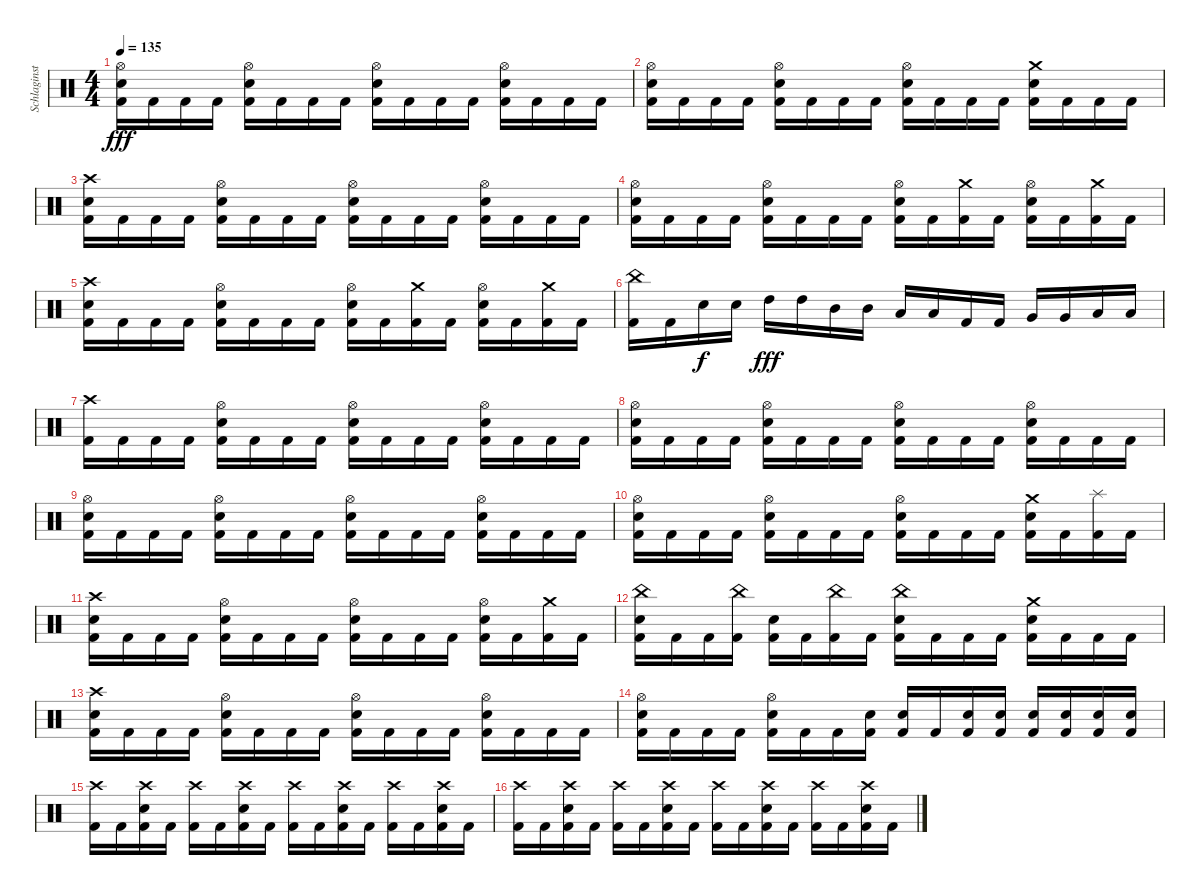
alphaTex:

\track ("Schlaginstrumente - Auswahl" "Schlaginst") {instrument percussion}
\staff {score}
\articulation defaults
\ts (4 4)
\tempo 135
\clef neutral
\ks c
("Hi-Hat (open)" "Snare (hit) 2" "Kick (hit) 2").16{dy fff} "Kick (hit) 2".16 "Kick (hit) 2".16 "Kick (hit) 2".16 ("Hi-Hat (open)" "Snare (hit) 2" "Kick (hit) 2").16 "Kick (hit) 2".16 "Kick (hit) 2".16 "Kick (hit) 2".16 ("Hi-Hat (open)" "Snare (hit) 2" "Kick (hit) 2").16 "Kick (hit) 2".16 "Kick (hit) 2".16 "Kick (hit) 2".16 ("Hi-Hat (open)" "Snare (hit) 2" "Kick (hit) 2").16 "Kick (hit) 2".16 "Kick (hit) 2".16 "Kick (hit) 2".16 |
("Hi-Hat (open)" "Snare (hit) 2" "Kick (hit) 2").16 "Kick (hit) 2".16 "Kick (hit) 2".16 "Kick (hit) 2".16 ("Hi-Hat (open)" "Snare (hit) 2" "Kick (hit) 2").16 "Kick (hit) 2".16 "Kick (hit) 2".16 "Kick (hit) 2".16 ("Hi-Hat (open)" "Snare (hit) 2" "Kick (hit) 2").16 "Kick (hit) 2".16 "Kick (hit) 2".16 "Kick (hit) 2".16 ("Crash medium (hit)" "Snare (hit) 2" "Kick (hit) 2").16 "Kick (hit) 2".16 "Kick (hit) 2".16 "Kick (hit) 2".16 |
("Crash high (hit)" "Snare (hit) 2" "Kick (hit) 2").16 "Kick (hit) 2".16 "Kick (hit) 2".16 "Kick (hit) 2".16 ("Hi-Hat (open)" "Snare (hit) 2" "Kick (hit) 2").16 "Kick (hit) 2".16 "Kick (hit) 2".16 "Kick (hit) 2".16 ("Hi-Hat (open)" "Snare (hit) 2" "Kick (hit) 2").16 "Kick (hit) 2".16 "Kick (hit) 2".16 "Kick (hit) 2".16 ("Hi-Hat (open)" "Snare (hit) 2" "Kick (hit) 2").16 "Kick (hit) 2".16 "Kick (hit) 2".16 "Kick (hit) 2".16 |
("Hi-Hat (open)" "Snare (hit) 2" "Kick (hit) 2").16 "Kick (hit) 2".16 "Kick (hit) 2".16 "Kick (hit) 2".16 ("Hi-Hat (open)" "Snare (hit) 2" "Kick (hit) 2").16 "Kick (hit) 2".16 "Kick (hit) 2".16 "Kick (hit) 2".16 ("Hi-Hat (open)" "Snare (hit) 2" "Kick (hit) 2").16 "Kick (hit) 2".16 ("Crash medium (hit)" "Kick (hit) 2").16 "Kick (hit) 2".16 ("Hi-Hat (open)" "Snare (hit) 2" "Kick (hit) 2").16 "Kick (hit) 2".16 ("Crash medium (hit)" "Kick (hit) 2").16 "Kick (hit) 2".16 |
("Crash high (hit)" "Snare (hit) 2" "Kick (hit) 2").16 "Kick (hit) 2".16 "Kick (hit) 2".16 "Kick (hit) 2".16 ("Hi-Hat (open)" "Snare (hit) 2" "Kick (hit) 2").16 "Kick (hit) 2".16 "Kick (hit) 2".16 "Kick (hit) 2".16 ("Hi-Hat (open)" "Snare (hit) 2" "Kick (hit) 2").16 "Kick (hit) 2".16 ("Crash medium (hit)" "Kick (hit) 2").16 "Kick (hit) 2".16 ("Hi-Hat (open)" "Snare (hit) 2" "Kick (hit) 2").16 "Kick (hit) 2".16 ("Crash medium (hit)" "Kick (hit) 2").16 "Kick (hit) 2".16 |
("China (hit)" "Kick (hit) 2").16 "Kick (hit) 2".16 "Snare (hit) 2".16{dy f} "Snare (hit) 2".16 "High Tom (hit)".16{dy fff} "High Tom (hit)".16 "Mid Tom (hit)".16 "Mid Tom (hit)".16 "Low Tom (hit)".16 "Low Tom (hit)".16 "Kick (hit) 2".16 "Kick (hit) 2".16 "Very Low Tom (hit)".16 "Very Low Tom (hit)".16 "Low Floor Tom (hit)".16 "Low Floor Tom (hit)".16 |
("Crash high (hit)" "Kick (hit) 2").16 "Kick (hit) 2".16 "Kick (hit) 2".16 "Kick (hit) 2".16 ("Hi-Hat (open)" "Snare (hit) 2" "Kick (hit) 2").16 "Kick (hit) 2".16 "Kick (hit) 2".16 "Kick (hit) 2".16 ("Hi-Hat (open)" "Snare (hit) 2" "Kick (hit) 2").16 "Kick (hit) 2".16 "Kick (hit) 2".16 "Kick (hit) 2".16 ("Hi-Hat (open)" "Snare (hit) 2" "Kick (hit) 2").16 "Kick (hit) 2".16 "Kick (hit) 2".16 "Kick (hit) 2".16 |
("Hi-Hat (open)" "Snare (hit) 2" "Kick (hit) 2").16 "Kick (hit) 2".16 "Kick (hit) 2".16 "Kick (hit) 2".16 ("Hi-Hat (open)" "Snare (hit) 2" "Kick (hit) 2").16 "Kick (hit) 2".16 "Kick (hit) 2".16 "Kick (hit) 2".16 ("Hi-Hat (open)" "Snare (hit) 2" "Kick (hit) 2").16 "Kick (hit) 2".16 "Kick (hit) 2".16 "Kick (hit) 2".16 ("Hi-Hat (open)" "Snare (hit) 2" "Kick (hit) 2").16 "Kick (hit) 2".16 "Kick (hit) 2".16 "Kick (hit) 2".16 |
("Hi-Hat (open)" "Snare (hit) 2" "Kick (hit) 2").16 "Kick (hit) 2".16 "Kick (hit) 2".16 "Kick (hit) 2".16 ("Hi-Hat (open)" "Snare (hit) 2" "Kick (hit) 2").16 "Kick (hit) 2".16 "Kick (hit) 2".16 "Kick (hit) 2".16 ("Hi-Hat (open)" "Snare (hit) 2" "Kick (hit) 2").16 "Kick (hit) 2".16 "Kick (hit) 2".16 "Kick (hit) 2".16 ("Hi-Hat (open)" "Snare (hit) 2" "Kick (hit) 2").16 "Kick (hit) 2".16 "Kick (hit) 2".16 "Kick (hit) 2".16 |
("Hi-Hat (open)" "Snare (hit) 2" "Kick (hit) 2").16 "Kick (hit) 2".16 "Kick (hit) 2".16 "Kick (hit) 2".16 ("Hi-Hat (open)" "Snare (hit) 2" "Kick (hit) 2").16 "Kick (hit) 2".16 "Kick (hit) 2".16 "Kick (hit) 2".16 ("Hi-Hat (open)" "Snare (hit) 2" "Kick (hit) 2").16 "Kick (hit) 2".16 "Kick (hit) 2".16 "Kick (hit) 2".16 ("Crash medium (hit)" "Snare (hit) 2" "Kick (hit) 2").16 "Kick (hit) 2".16 ("Splash (hit)" "Kick (hit) 2").16 "Kick (hit) 2".16 |
("Crash high (hit)" "Snare (hit) 2" "Kick (hit) 2").16 "Kick (hit) 2".16 "Kick (hit) 2".16 "Kick (hit) 2".16 ("Hi-Hat (open)" "Snare (hit) 2" "Kick (hit) 2").16 "Kick (hit) 2".16 "Kick (hit) 2".16 "Kick (hit) 2".16 ("Hi-Hat (open)" "Snare (hit) 2" "Kick (hit) 2").16 "Kick (hit) 2".16 "Kick (hit) 2".16 "Kick (hit) 2".16 ("Hi-Hat (open)" "Snare (hit) 2" "Kick (hit) 2").16 "Kick (hit) 2".16 ("Crash medium (hit)" "Kick (hit) 2").16 "Kick (hit) 2".16 |
("China (hit)" "Snare (hit) 2" "Kick (hit) 2").16 "Kick (hit) 2".16 "Kick (hit) 2".16 ("China (hit)" "Kick (hit) 2").16 ("Snare (hit) 2" "Kick (hit) 2").16 "Kick (hit) 2".16 ("China (hit)" "Kick (hit) 2").16 "Kick (hit) 2".16 ("China (hit)" "Snare (hit) 2" "Kick (hit) 2").16 "Kick (hit) 2".16 "Kick (hit) 2".16 "Kick (hit) 2".16 ("Crash medium (hit)" "Snare (hit) 2" "Kick (hit) 2").16 "Kick (hit) 2".16 "Kick (hit) 2".16 "Kick (hit) 2".16 |
("Crash high (hit)" "Snare (hit) 2" "Kick (hit) 2").16 "Kick (hit) 2".16 "Kick (hit) 2".16 "Kick (hit) 2".16 ("Hi-Hat (open)" "Snare (hit) 2" "Kick (hit) 2").16 "Kick (hit) 2".16 "Kick (hit) 2".16 "Kick (hit) 2".16 ("Hi-Hat (open)" "Snare (hit) 2" "Kick (hit) 2").16 "Kick (hit) 2".16 "Kick (hit) 2".16 "Kick (hit) 2".16 ("Hi-Hat (open)" "Snare (hit) 2" "Kick (hit) 2").16 "Kick (hit) 2".16 "Kick (hit) 2".16 "Kick (hit) 2".16 |
("Hi-Hat (open)" "Snare (hit) 2" "Kick (hit) 2").16 "Kick (hit) 2".16 "Kick (hit) 2".16 "Kick (hit) 2".16 ("Hi-Hat (open)" "Snare (hit) 2" "Kick (hit) 2").16 "Kick (hit) 2".16 "Kick (hit) 2".16 ("Snare (hit) 2" "Kick (hit) 2").16 ("Snare (hit) 2" "Kick (hit) 2").16 "Kick (hit) 2".16 ("Snare (hit) 2" "Kick (hit) 2").16 ("Snare (hit) 2" "Kick (hit) 2").16 ("Snare (hit) 2" "Kick (hit) 2").16 ("Snare (hit) 2" "Kick (hit) 2").16 ("Snare (hit) 2" "Kick (hit) 2").16 ("Snare (hit) 2" "Kick (hit) 2").16 |
("Crash high (hit)" "Kick (hit) 2").16 "Kick (hit) 2".16 ("Crash high (hit)" "Snare (hit) 2" "Kick (hit) 2").16 "Kick (hit) 2".16 ("Crash high (hit)" "Kick (hit) 2").16 "Kick (hit) 2".16 ("Crash high (hit)" "Snare (hit) 2" "Kick (hit) 2").16 "Kick (hit) 2".16 ("Crash high (hit)" "Kick (hit) 2").16 "Kick (hit) 2".16 ("Crash high (hit)" "Snare (hit) 2" "Kick (hit) 2").16 "Kick (hit) 2".16 ("Crash high (hit)" "Kick (hit) 2").16 "Kick (hit) 2".16 ("Crash high (hit)" "Snare (hit) 2" "Kick (hit) 2").16 "Kick (hit) 2".16 |
("Crash high (hit)" "Kick (hit) 2").16 "Kick (hit) 2".16 ("Crash high (hit)" "Snare (hit) 2" "Kick (hit) 2").16 "Kick (hit) 2".16 ("Crash high (hit)" "Kick (hit) 2").16 "Kick (hit) 2".16 ("Crash high (hit)" "Snare (hit) 2" "Kick (hit) 2").16 "Kick (hit) 2".16 ("Crash high (hit)" "Kick (hit) 2").16 "Kick (hit) 2".16 ("Crash high (hit)" "Snare (hit) 2" "Kick (hit) 2").16 "Kick (hit) 2".16 ("Crash high (hit)" "Kick (hit) 2").16 "Kick (hit) 2".16 ("Crash high (hit)" "Snare (hit) 2" "Kick (hit) 2").16 "Kick (hit) 2".16
